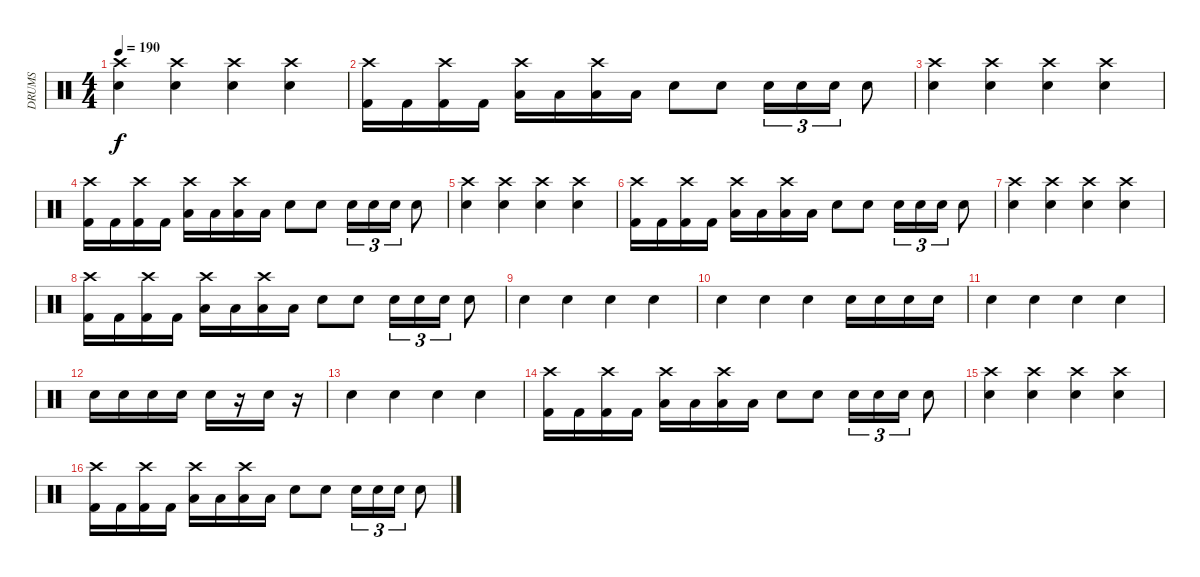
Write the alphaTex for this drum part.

\track ("DRUMS" "DRUMS") {instrument percussion}
\staff {score}
\articulation defaults
\ts (4 4)
\tempo 190
\clef neutral
\ks c
("Crash high (hit)" "Electric Snare (hit)").4{dy f} ("Crash high (hit)" "Snare (hit) 2").4 ("Crash high (hit)" "Electric Snare (hit)").4 ("Crash high (hit)" "Snare (hit) 2").4 |
("Crash high (hit)" "Kick (hit) 2").16 "Kick (hit) 2".16 ("Crash high (hit)" "Kick (hit) 2").16 "Kick (hit) 2".16 ("Crash high (hit)" "Low Tom (hit)").16 "Low Tom (hit)".16 ("Crash high (hit)" "Low Tom (hit)").16 "Low Tom (hit)".16 "Electric Snare (hit)".8 "Electric Snare (hit)".8 "Electric Snare (hit)".16{tu (3 2)} "Electric Snare (hit)".16{tu (3 2)} "Electric Snare (hit)".16{tu (3 2)} "Snare (hit) 2".8 |
("Crash high (hit)" "Electric Snare (hit)").4 ("Crash high (hit)" "Snare (hit) 2").4 ("Crash high (hit)" "Electric Snare (hit)").4 ("Crash high (hit)" "Snare (hit) 2").4 |
("Crash high (hit)" "Kick (hit) 2").16 "Kick (hit) 2".16 ("Crash high (hit)" "Kick (hit) 2").16 "Kick (hit) 2".16 ("Crash high (hit)" "Low Tom (hit)").16 "Low Tom (hit)".16 ("Crash high (hit)" "Low Tom (hit)").16 "Low Tom (hit)".16 "Electric Snare (hit)".8 "Electric Snare (hit)".8 "Electric Snare (hit)".16{tu (3 2)} "Electric Snare (hit)".16{tu (3 2)} "Electric Snare (hit)".16{tu (3 2)} "Snare (hit) 2".8 |
("Crash high (hit)" "Electric Snare (hit)").4 ("Crash high (hit)" "Snare (hit) 2").4 ("Crash high (hit)" "Electric Snare (hit)").4 ("Crash high (hit)" "Snare (hit) 2").4 |
("Crash high (hit)" "Kick (hit) 2").16 "Kick (hit) 2".16 ("Crash high (hit)" "Kick (hit) 2").16 "Kick (hit) 2".16 ("Crash high (hit)" "Low Tom (hit)").16 "Low Tom (hit)".16 ("Crash high (hit)" "Low Tom (hit)").16 "Low Tom (hit)".16 "Electric Snare (hit)".8 "Electric Snare (hit)".8 "Electric Snare (hit)".16{tu (3 2)} "Electric Snare (hit)".16{tu (3 2)} "Electric Snare (hit)".16{tu (3 2)} "Snare (hit) 2".8 |
("Crash high (hit)" "Electric Snare (hit)").4 ("Crash high (hit)" "Snare (hit) 2").4 ("Crash high (hit)" "Electric Snare (hit)").4 ("Crash high (hit)" "Snare (hit) 2").4 |
("Crash high (hit)" "Kick (hit) 2").16 "Kick (hit) 2".16 ("Crash high (hit)" "Kick (hit) 2").16 "Kick (hit) 2".16 ("Crash high (hit)" "Low Tom (hit)").16 "Low Tom (hit)".16 ("Crash high (hit)" "Low Tom (hit)").16 "Low Tom (hit)".16 "Electric Snare (hit)".8 "Electric Snare (hit)".8 "Electric Snare (hit)".16{tu (3 2)} "Electric Snare (hit)".16{tu (3 2)} "Electric Snare (hit)".16{tu (3 2)} "Snare (hit) 2".8 |
"Electric Snare (hit)".4 "Electric Snare (hit)".4 "Electric Snare (hit)".4 "Electric Snare (hit)".4 |
"Electric Snare (hit)".4 "Snare (hit) 2".4 "Electric Snare (hit)".4 "Electric Snare (hit)".16 "Electric Snare (hit)".16 "Electric Snare (hit)".16 "Electric Snare (hit)".16 |
"Electric Snare (hit)".4 "Electric Snare (hit)".4 "Electric Snare (hit)".4 "Electric Snare (hit)".4 |
"Electric Snare (hit)".16 "Electric Snare (hit)".16 "Electric Snare (hit)".16 "Electric Snare (hit)".16 "Electric Snare (hit)".16 r.16 "Electric Snare (hit)".16 r.16 |
"Electric Snare (hit)".4 "Electric Snare (hit)".4 "Electric Snare (hit)".4 "Electric Snare (hit)".4 |
("Crash high (hit)" "Kick (hit) 2").16 "Kick (hit) 2".16 ("Crash high (hit)" "Kick (hit) 2").16 "Kick (hit) 2".16 ("Crash high (hit)" "Low Tom (hit)").16 "Low Tom (hit)".16 ("Crash high (hit)" "Low Tom (hit)").16 "Low Tom (hit)".16 "Electric Snare (hit)".8 "Electric Snare (hit)".8 "Electric Snare (hit)".16{tu (3 2)} "Electric Snare (hit)".16{tu (3 2)} "Electric Snare (hit)".16{tu (3 2)} "Snare (hit) 2".8 |
("Crash high (hit)" "Electric Snare (hit)").4 ("Crash high (hit)" "Snare (hit) 2").4 ("Crash high (hit)" "Electric Snare (hit)").4 ("Crash high (hit)" "Snare (hit) 2").4 |
("Crash high (hit)" "Kick (hit) 2").16 "Kick (hit) 2".16 ("Crash high (hit)" "Kick (hit) 2").16 "Kick (hit) 2".16 ("Crash high (hit)" "Low Tom (hit)").16 "Low Tom (hit)".16 ("Crash high (hit)" "Low Tom (hit)").16 "Low Tom (hit)".16 "Electric Snare (hit)".8 "Electric Snare (hit)".8 "Electric Snare (hit)".16{tu (3 2)} "Electric Snare (hit)".16{tu (3 2)} "Electric Snare (hit)".16{tu (3 2)} "Snare (hit) 2".8
